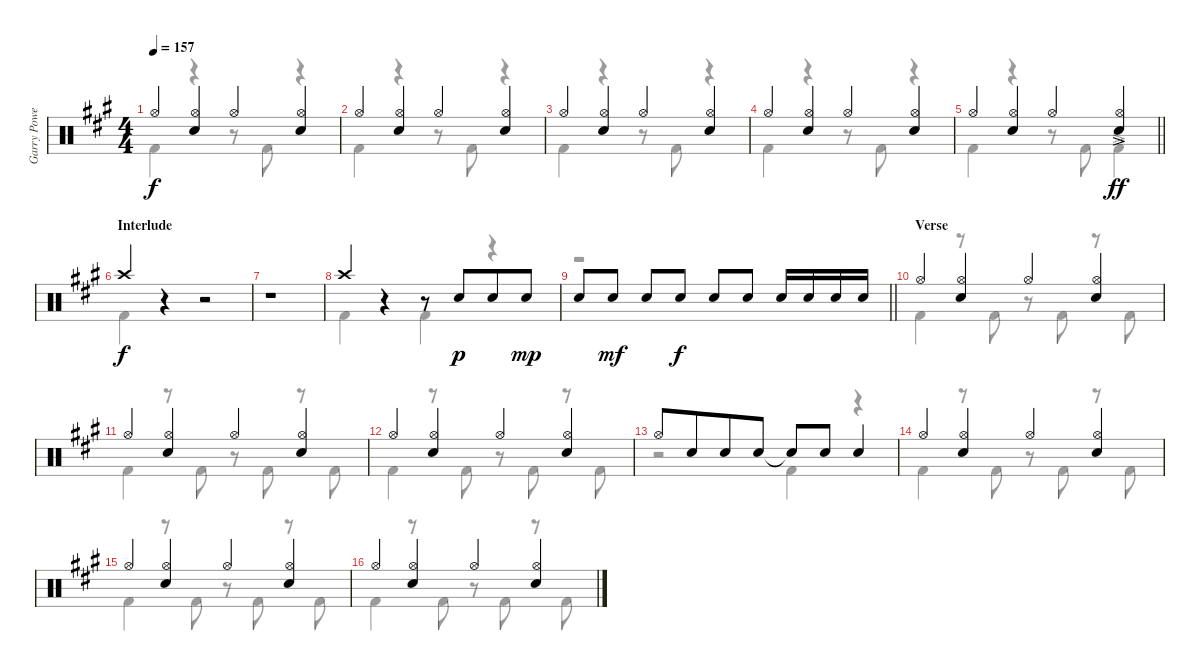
\track ("Garry Powell" "Garry Powe") {instrument percussion}
\staff {score}
\articulation defaults
\voice
\ts (4 4)
\tempo 157
\clef neutral
\ks a "Hi-Hat (open)".4{dy f}
("Hi-Hat (open)" "Electric Snare (hit)").4 "Hi-Hat (open)".4 ("Hi-Hat (open)" "Electric Snare (hit)").4 |
"Hi-Hat (open)".4 ("Hi-Hat (open)" "Electric Snare (hit)").4 "Hi-Hat (open)".4 ("Hi-Hat (open)" "Electric Snare (hit)").4 |
"Hi-Hat (open)".4 ("Hi-Hat (open)" "Electric Snare (hit)").4 "Hi-Hat (open)".4 ("Hi-Hat (open)" "Electric Snare (hit)").4 |
"Hi-Hat (open)".4 ("Hi-Hat (open)" "Electric Snare (hit)").4 "Hi-Hat (open)".4 ("Hi-Hat (open)" "Electric Snare (hit)").4 |
\barLineRight lightlight "Hi-Hat (open)".4
("Hi-Hat (open)" "Electric Snare (hit)").4 "Hi-Hat (open)".4 ("Hi-Hat (open)" "Electric Snare (hit)"{ac}).4{dy ff} |
\section ("" "Interlude")
"Crash high (hit)".4{dy f} r.4 r.2 |
r.1 |
"Crash high (hit)".4 r.4 r.8 "Electric Snare (hit)".8{dy p beam merge} "Electric Snare (hit)".8 "Electric Snare (hit)".8{dy mp} |
\barLineRight lightlight "Electric Snare (hit)".8 "Electric Snare (hit)".8{dy mf} "Electric Snare (hit)".8 "Electric Snare (hit)".8{dy f} "Electric Snare (hit)".8 "Electric Snare (hit)".8 "Electric Snare (hit)".16 "Electric Snare (hit)".16 "Electric Snare (hit)".16 "Electric Snare (hit)".16
|
\section ("" "Verse")
"Hi-Hat (open)".4 ("Hi-Hat (open)" "Electric Snare (hit)").4 "Hi-Hat (open)".4 ("Hi-Hat (open)" "Electric Snare (hit)").4 |
"Hi-Hat (open)".4 ("Hi-Hat (open)" "Electric Snare (hit)").4 "Hi-Hat (open)".4 ("Hi-Hat (open)" "Electric Snare (hit)").4 |
"Hi-Hat (open)".4 ("Hi-Hat (open)" "Electric Snare (hit)").4 "Hi-Hat (open)".4 ("Hi-Hat (open)" "Electric Snare (hit)").4 |
"Hi-Hat (open)".8 "Electric Snare (hit)".8{beam merge} "Electric Snare (hit)".8 "Electric Snare (hit)".8 "Snare (hit)"{t}.8 "Electric Snare (hit)".8 "Electric Snare (hit)".4 |
"Hi-Hat (open)".4 ("Hi-Hat (open)" "Electric Snare (hit)").4 "Hi-Hat (open)".4 ("Hi-Hat (open)" "Electric Snare (hit)").4 |
"Hi-Hat (open)".4 ("Hi-Hat (open)" "Electric Snare (hit)").4 "Hi-Hat (open)".4 ("Hi-Hat (open)" "Electric Snare (hit)").4 |
"Hi-Hat (open)".4 ("Hi-Hat (open)" "Electric Snare (hit)").4 "Hi-Hat (open)".4 ("Hi-Hat (open)" "Electric Snare (hit)").4
\voice
\clef neutral
\ottava regular
\simile none
\ks a "Kick (hit) 2".4{dy f}
r.4 r.8 "Kick (hit) 2".8 r.4 |
"Kick (hit) 2".4 r.4 r.8 "Kick (hit) 2".8 r.4 |
"Kick (hit) 2".4 r.4 r.8 "Kick (hit) 2".8 r.4 |
"Kick (hit) 2".4 r.4 r.8 "Kick (hit) 2".8 r.4 |
\barLineRight lightlight "Kick (hit) 2".4
r.4 r.8 "Kick (hit) 2".8 "Kick (hit) 2"{ac}.4{dy ff} |
"Kick (hit) 2".4{dy f} r.4 r.2 |
r.1 |
"Kick (hit) 2".4 r.4 "Kick (hit) 2".4 r.4 |
\barLineRight lightlight
r.1 |
"Kick (hit) 2".4 r.8 "Kick (hit) 2".8 r.8 "Kick (hit) 2".8 r.8 "Kick (hit) 2".8 |
"Kick (hit) 2".4 r.8 "Kick (hit) 2".8 r.8 "Kick (hit) 2".8 r.8 "Kick (hit) 2".8 |
"Kick (hit) 2".4 r.8 "Kick (hit) 2".8 r.8 "Kick (hit) 2".8 r.8 "Kick (hit) 2".8 |
r.2 "Kick (hit) 2".4 r.4 |
"Kick (hit) 2".4 r.8 "Kick (hit) 2".8 r.8 "Kick (hit) 2".8 r.8 "Kick (hit) 2".8 |
"Kick (hit) 2".4 r.8 "Kick (hit) 2".8 r.8 "Kick (hit) 2".8 r.8 "Kick (hit) 2".8 |
"Kick (hit) 2".4 r.8 "Kick (hit) 2".8 r.8 "Kick (hit) 2".8 r.8 "Kick (hit) 2".8
